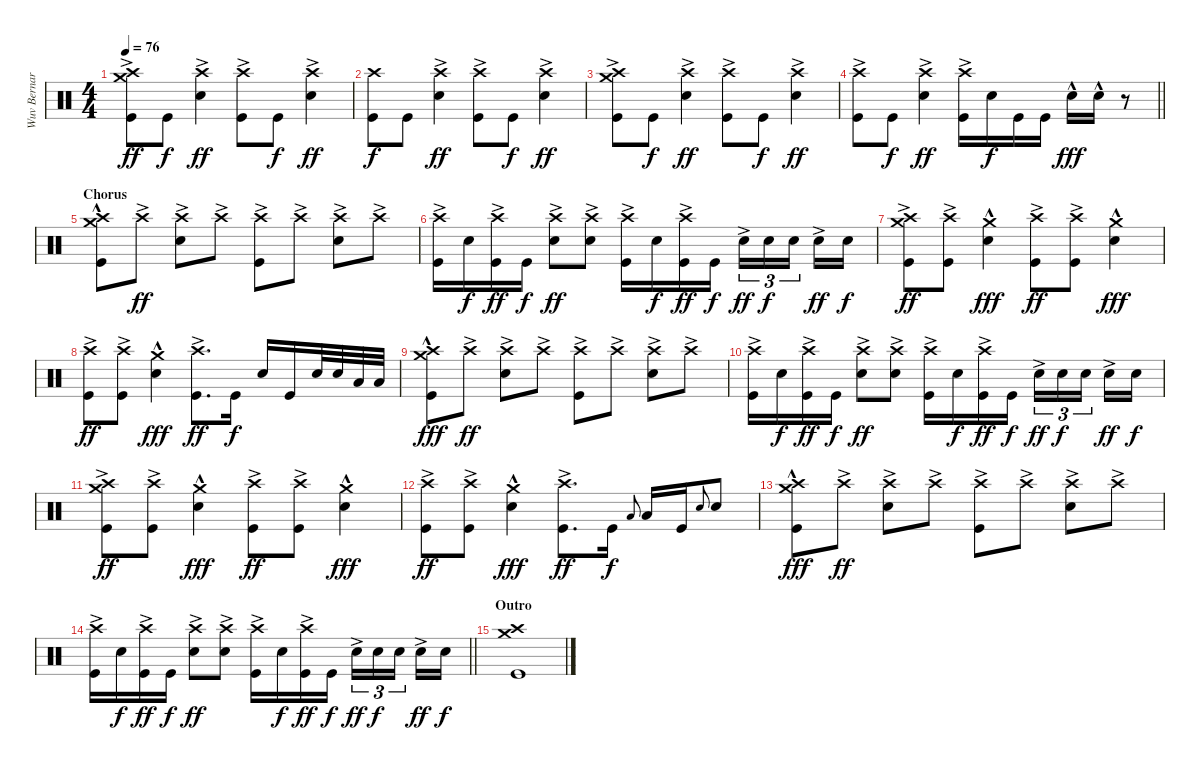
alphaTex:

\track ("Wuv Bernardo" "Wuv Bernar") {instrument percussion}
\staff {score}
\articulation defaults
\ts (4 4)
\tempo 76
\clef neutral
\ks c
("Crash medium (hit)"{ac} "Crash high (hit)"{ac} "Kick (hit)").8{dy ff} "Kick (hit)".8{dy f} ("Crash high (hit)"{ac} "Snare (hit) 2").4{dy ff} ("Crash high (hit)"{ac} "Kick (hit)").8 "Kick (hit)".8{dy f} ("Crash high (hit)"{ac} "Snare (hit) 2").4{dy ff} |
("Crash high (hit)" "Kick (hit)").8{dy f} "Kick (hit)".8 ("Crash high (hit)"{ac} "Snare (hit) 2").4{dy ff} ("Crash high (hit)"{ac} "Kick (hit)").8 "Kick (hit)".8{dy f} ("Crash high (hit)"{ac} "Snare (hit) 2").4{dy ff} |
("Crash medium (hit)"{ac} "Crash high (hit)"{ac} "Kick (hit)").8 "Kick (hit)".8{dy f} ("Crash high (hit)"{ac} "Snare (hit) 2").4{dy ff} ("Crash high (hit)"{ac} "Kick (hit)").8 "Kick (hit)".8{dy f} ("Crash high (hit)"{ac} "Snare (hit) 2").4{dy ff} |
\barLineRight lightlight
("Crash high (hit)"{ac} "Kick (hit)").8 "Kick (hit)".8{dy f} ("Crash high (hit)"{ac} "Snare (hit) 2").4{dy ff} ("Crash high (hit)"{ac} "Kick (hit)").16 "Snare (hit) 2".16{dy f} "Kick (hit)".16 "Kick (hit)".16 "Snare (hit) 2"{hac}.16{dy fff} "Snare (hit) 2"{hac}.16 r.8 |
\section ("" "Chorus")
("Crash medium (hit)"{hac} "Crash high (hit)"{hac} "Kick (hit)").8 "Crash high (hit)"{ac}.8{dy ff} ("Crash high (hit)"{ac} "Snare (hit) 2").8 "Crash high (hit)"{ac}.8 ("Crash high (hit)"{ac} "Kick (hit)").8 "Crash high (hit)"{ac}.8 ("Crash high (hit)"{ac} "Snare (hit) 2").8 "Crash high (hit)"{ac}.8 |
("Crash high (hit)"{ac} "Kick (hit)").16 "Snare (hit) 2".16{dy f} ("Crash high (hit)"{ac} "Kick (hit)").16{dy ff} "Kick (hit)".16{dy f} ("Crash high (hit)"{ac} "Snare (hit) 2").8{dy ff} ("Crash high (hit)"{ac} "Snare (hit) 2").8 ("Crash high (hit)"{ac} "Kick (hit)").16 "Snare (hit) 2".16{dy f} ("Crash high (hit)"{ac} "Kick (hit)").16{dy ff} "Kick (hit)".16{dy f} "Snare (hit) 2"{ac}.16{tu (3 2) dy ff} "Snare (hit) 2".16{tu (3 2) dy f} "Snare (hit) 2".16{tu (3 2) beam splitsecondary} "Snare (hit) 2"{ac}.16{dy ff} "Snare (hit) 2".16{dy f} |
("Crash medium (hit)"{ac} "Crash high (hit)"{ac} "Kick (hit)").8{dy ff} ("Crash high (hit)"{ac} "Kick (hit)").8 ("Crash medium (hit)"{hac} "Snare (hit) 2").4{dy fff} ("Crash high (hit)"{ac} "Kick (hit)").8{dy ff} ("Crash high (hit)"{ac} "Kick (hit)").8 ("Crash medium (hit)"{hac} "Snare (hit) 2").4{dy fff} |
("Crash high (hit)"{ac} "Kick (hit)").8{dy ff} ("Crash high (hit)"{ac} "Kick (hit)").8 ("Crash medium (hit)"{hac} "Snare (hit) 2").4{dy fff} ("Crash high (hit)"{ac} "Kick (hit)").8{d dy ff} "Kick (hit)".16{dy f} "Snare (hit) 2".16 "Kick (hit)".16 "Snare (hit) 2".32 "Snare (hit) 2".32 "Low Tom (hit)".32 "Low Tom (hit)".32 |
("Crash medium (hit)"{hac} "Crash high (hit)"{hac} "Kick (hit)").8{dy fff} "Crash high (hit)"{ac}.8{dy ff} ("Crash high (hit)"{ac} "Snare (hit) 2").8 "Crash high (hit)"{ac}.8 ("Crash high (hit)"{ac} "Kick (hit)").8 "Crash high (hit)"{ac}.8 ("Crash high (hit)"{ac} "Snare (hit) 2").8 "Crash high (hit)"{ac}.8 |
("Crash high (hit)"{ac} "Kick (hit)").16 "Snare (hit) 2".16{dy f} ("Crash high (hit)"{ac} "Kick (hit)").16{dy ff} "Kick (hit)".16{dy f} ("Crash high (hit)"{ac} "Snare (hit) 2").8{dy ff} ("Crash high (hit)"{ac} "Snare (hit) 2").8 ("Crash high (hit)"{ac} "Kick (hit)").16 "Snare (hit) 2".16{dy f} ("Crash high (hit)"{ac} "Kick (hit)").16{dy ff} "Kick (hit)".16{dy f} "Snare (hit) 2"{ac}.16{tu (3 2) dy ff} "Snare (hit) 2".16{tu (3 2) dy f} "Snare (hit) 2".16{tu (3 2) beam splitsecondary} "Snare (hit) 2"{ac}.16{dy ff} "Snare (hit) 2".16{dy f} |
("Crash medium (hit)"{ac} "Crash high (hit)"{ac} "Kick (hit)").8{dy ff} ("Crash high (hit)"{ac} "Kick (hit)").8 ("Crash medium (hit)"{hac} "Snare (hit) 2").4{dy fff} ("Crash high (hit)"{ac} "Kick (hit)").8{dy ff} ("Crash high (hit)"{ac} "Kick (hit)").8 ("Crash medium (hit)"{hac} "Snare (hit) 2").4{dy fff} |
("Crash high (hit)"{ac} "Kick (hit)").8{dy ff} ("Crash high (hit)"{ac} "Kick (hit)").8 ("Crash medium (hit)"{hac} "Snare (hit) 2").4{dy fff} ("Crash high (hit)"{ac} "Kick (hit)").8{d dy ff} "Kick (hit)".16{dy f} "Low Tom (hit)".8{gr onbeat} "Low Tom (hit)".16 "Kick (hit)".16 "Snare (hit) 2".8{gr onbeat} "Snare (hit) 2".8 |
("Crash medium (hit)"{hac} "Crash high (hit)"{hac} "Kick (hit)").8{dy fff} "Crash high (hit)"{ac}.8{dy ff} ("Crash high (hit)"{ac} "Snare (hit) 2").8 "Crash high (hit)"{ac}.8 ("Crash high (hit)"{ac} "Kick (hit)").8 "Crash high (hit)"{ac}.8 ("Crash high (hit)"{ac} "Snare (hit) 2").8 "Crash high (hit)"{ac}.8 |
\barLineRight lightlight
("Crash high (hit)"{ac} "Kick (hit)").16 "Snare (hit) 2".16{dy f} ("Crash high (hit)"{ac} "Kick (hit)").16{dy ff} "Kick (hit)".16{dy f} ("Crash high (hit)"{ac} "Snare (hit) 2").8{dy ff} ("Crash high (hit)"{ac} "Snare (hit) 2").8 ("Crash high (hit)"{ac} "Kick (hit)").16 "Snare (hit) 2".16{dy f} ("Crash high (hit)"{ac} "Kick (hit)").16{dy ff} "Kick (hit)".16{dy f} "Snare (hit) 2"{ac}.16{tu (3 2) dy ff} "Snare (hit) 2".16{tu (3 2) dy f} "Snare (hit) 2".16{tu (3 2) beam splitsecondary} "Snare (hit) 2"{ac}.16{dy ff} "Snare (hit) 2".16{dy f} |
\section ("" "Outro")
("Crash medium (hit)" "Crash high (hit)" "Kick (hit)").1
